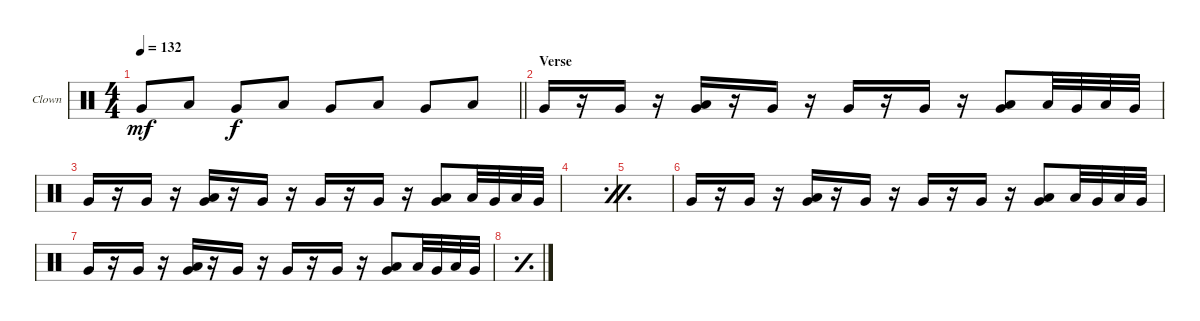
\bracketExtendMode groupsimilarinstruments
\firstSystemTrackNameOrientation horizontal
\otherSystemsTrackNameOrientation horizontal
\track ("Clown" "Clown") {instrument percussion}
\staff {score}
\articulation defaults
\ts (4 4)
\tempo 132
\clef neutral
\barLineRight lightlight
\ks c "Very Low Tom (hit)".8{dy mf} "Low Tom (hit)".8 "Very Low Tom (hit)".8{dy f} "Low Tom (hit)".8 "Very Low Tom (hit)".8 "Low Tom (hit)".8 "Very Low Tom (hit)".8 "Low Tom (hit)".8
|
\section ("" "Verse")
"Very Low Tom (hit)".16 r.16 "Very Low Tom (hit)".16 r.16 ("Very Low Tom (hit)" "Low Tom (hit)").16 r.16 "Very Low Tom (hit)".16 r.16 "Very Low Tom (hit)".16 r.16 "Very Low Tom (hit)".16 r.16 ("Very Low Tom (hit)" "Low Tom (hit)").8 "Low Tom (hit)".32 "Very Low Tom (hit)".32 "Low Tom (hit)".32 "Very Low Tom (hit)".32 |
"Very Low Tom (hit)".16 r.16 "Very Low Tom (hit)".16 r.16 ("Very Low Tom (hit)" "Low Tom (hit)").16 r.16 "Very Low Tom (hit)".16 r.16 "Very Low Tom (hit)".16 r.16 "Very Low Tom (hit)".16 r.16 ("Very Low Tom (hit)" "Low Tom (hit)").8 "Low Tom (hit)".32 "Very Low Tom (hit)".32 "Low Tom (hit)".32 "Very Low Tom (hit)".32 |
\simile firstofdouble
|
\simile secondofdouble
|
\simile none "Very Low Tom (hit)".16
r.16 "Very Low Tom (hit)".16 r.16 ("Very Low Tom (hit)" "Low Tom (hit)").16 r.16 "Very Low Tom (hit)".16 r.16 "Very Low Tom (hit)".16 r.16 "Very Low Tom (hit)".16 r.16 ("Very Low Tom (hit)" "Low Tom (hit)").8 "Low Tom (hit)".32 "Very Low Tom (hit)".32 "Low Tom (hit)".32 "Very Low Tom (hit)".32 |
"Very Low Tom (hit)".16 r.16 "Very Low Tom (hit)".16 r.16 ("Very Low Tom (hit)" "Low Tom (hit)").16 r.16 "Very Low Tom (hit)".16 r.16 "Very Low Tom (hit)".16 r.16 "Very Low Tom (hit)".16 r.16 ("Very Low Tom (hit)" "Low Tom (hit)").8 "Low Tom (hit)".32 "Very Low Tom (hit)".32 "Low Tom (hit)".32 "Very Low Tom (hit)".32 |
\simile simple
|
\simile none
